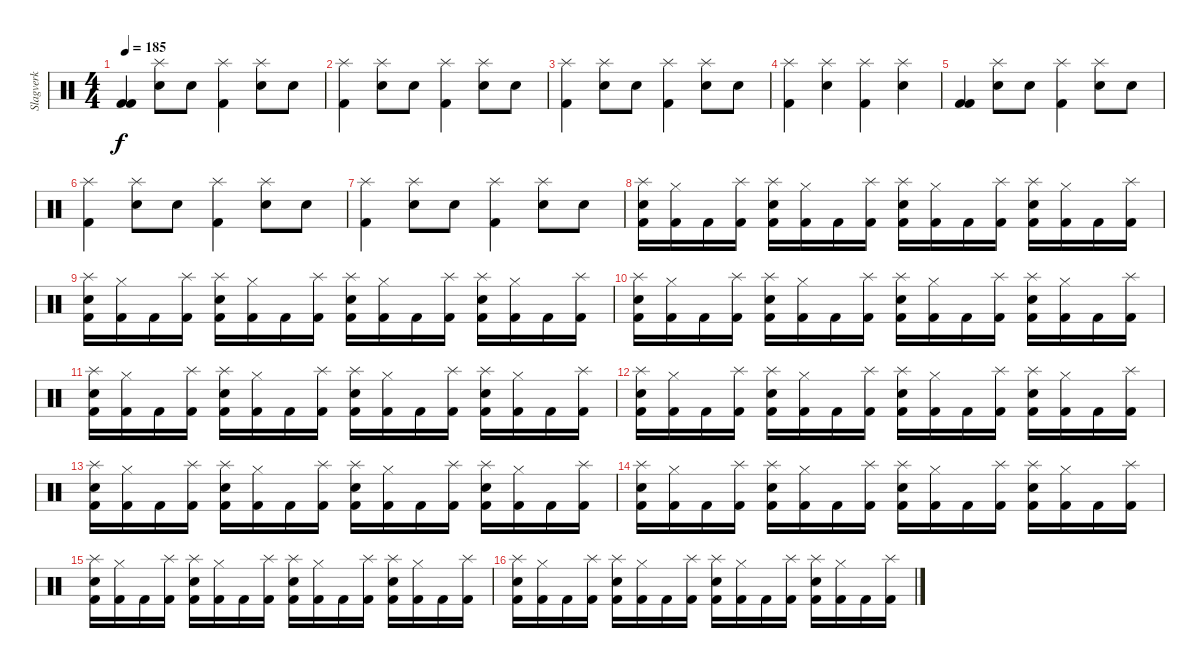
\track ("Slagverk" "Slagverk") {instrument percussion}
\staff {score}
\articulation defaults
\ts (4 4)
\tempo 185
\clef neutral
\ks c
("Kick (hit) 2" "Kick (hit) 2").4{dy f} ("Splash (hit)" "Electric Snare (hit)").8 "Electric Snare (hit)".8 ("Splash (hit)" "Kick (hit) 2").4 ("Splash (hit)" "Electric Snare (hit)").8 "Electric Snare (hit)".8 |
("Splash (hit)" "Kick (hit) 2").4 ("Splash (hit)" "Electric Snare (hit)").8 "Electric Snare (hit)".8 ("Splash (hit)" "Kick (hit) 2").4 ("Splash (hit)" "Electric Snare (hit)").8 "Electric Snare (hit)".8 |
("Splash (hit)" "Kick (hit) 2").4 ("Splash (hit)" "Electric Snare (hit)").8 "Electric Snare (hit)".8 ("Splash (hit)" "Kick (hit) 2").4 ("Splash (hit)" "Electric Snare (hit)").8 "Electric Snare (hit)".8 |
("Splash (hit)" "Kick (hit) 2").4 ("Splash (hit)" "Electric Snare (hit)").4 ("Splash (hit)" "Kick (hit) 2").4 ("Splash (hit)" "Electric Snare (hit)").4 |
("Kick (hit) 2" "Kick (hit) 2").4 ("Splash (hit)" "Electric Snare (hit)").8 "Electric Snare (hit)".8 ("Splash (hit)" "Kick (hit) 2").4 ("Splash (hit)" "Electric Snare (hit)").8 "Electric Snare (hit)".8 |
("Splash (hit)" "Kick (hit) 2").4 ("Splash (hit)" "Electric Snare (hit)").8 "Electric Snare (hit)".8 ("Splash (hit)" "Kick (hit) 2").4 ("Splash (hit)" "Electric Snare (hit)").8 "Electric Snare (hit)".8 |
("Splash (hit)" "Kick (hit) 2").4 ("Splash (hit)" "Electric Snare (hit)").8 "Electric Snare (hit)".8 ("Splash (hit)" "Kick (hit) 2").4 ("Splash (hit)" "Electric Snare (hit)").8 "Electric Snare (hit)".8 |
("Kick (hit) 2" "Electric Snare (hit)" "Splash (hit)").16 ("Kick (hit) 2" "Hi-Hat (closed)").16 "Kick (hit) 2".16 ("Kick (hit) 2" "Splash (hit)").16 ("Kick (hit) 2" "Electric Snare (hit)" "Splash (hit)").16 ("Kick (hit) 2" "Hi-Hat (closed)").16 "Kick (hit) 2".16 ("Kick (hit) 2" "Splash (hit)").16 ("Kick (hit) 2" "Electric Snare (hit)" "Splash (hit)").16 ("Kick (hit) 2" "Hi-Hat (closed)").16 "Kick (hit) 2".16 ("Kick (hit) 2" "Splash (hit)").16 ("Kick (hit) 2" "Electric Snare (hit)" "Splash (hit)").16 ("Kick (hit) 2" "Hi-Hat (closed)").16 "Kick (hit) 2".16 ("Kick (hit) 2" "Splash (hit)").16 |
("Kick (hit) 2" "Electric Snare (hit)" "Splash (hit)").16 ("Kick (hit) 2" "Hi-Hat (closed)").16 "Kick (hit) 2".16 ("Kick (hit) 2" "Splash (hit)").16 ("Kick (hit) 2" "Electric Snare (hit)" "Splash (hit)").16 ("Kick (hit) 2" "Hi-Hat (closed)").16 "Kick (hit) 2".16 ("Kick (hit) 2" "Splash (hit)").16 ("Kick (hit) 2" "Electric Snare (hit)" "Splash (hit)").16 ("Kick (hit) 2" "Hi-Hat (closed)").16 "Kick (hit) 2".16 ("Kick (hit) 2" "Splash (hit)").16 ("Kick (hit) 2" "Electric Snare (hit)" "Splash (hit)").16 ("Kick (hit) 2" "Hi-Hat (closed)").16 "Kick (hit) 2".16 ("Kick (hit) 2" "Splash (hit)").16 |
("Kick (hit) 2" "Electric Snare (hit)" "Splash (hit)").16 ("Kick (hit) 2" "Hi-Hat (closed)").16 "Kick (hit) 2".16 ("Kick (hit) 2" "Splash (hit)").16 ("Kick (hit) 2" "Electric Snare (hit)" "Splash (hit)").16 ("Kick (hit) 2" "Hi-Hat (closed)").16 "Kick (hit) 2".16 ("Kick (hit) 2" "Splash (hit)").16 ("Kick (hit) 2" "Electric Snare (hit)" "Splash (hit)").16 ("Kick (hit) 2" "Hi-Hat (closed)").16 "Kick (hit) 2".16 ("Kick (hit) 2" "Splash (hit)").16 ("Kick (hit) 2" "Electric Snare (hit)" "Splash (hit)").16 ("Kick (hit) 2" "Hi-Hat (closed)").16 "Kick (hit) 2".16 ("Kick (hit) 2" "Splash (hit)").16 |
("Kick (hit) 2" "Electric Snare (hit)" "Splash (hit)").16 ("Kick (hit) 2" "Hi-Hat (closed)").16 "Kick (hit) 2".16 ("Kick (hit) 2" "Splash (hit)").16 ("Kick (hit) 2" "Electric Snare (hit)" "Splash (hit)").16 ("Kick (hit) 2" "Hi-Hat (closed)").16 "Kick (hit) 2".16 ("Kick (hit) 2" "Splash (hit)").16 ("Kick (hit) 2" "Electric Snare (hit)" "Splash (hit)").16 ("Kick (hit) 2" "Hi-Hat (closed)").16 "Kick (hit) 2".16 ("Kick (hit) 2" "Splash (hit)").16 ("Kick (hit) 2" "Electric Snare (hit)" "Splash (hit)").16 ("Kick (hit) 2" "Hi-Hat (closed)").16 "Kick (hit) 2".16 ("Kick (hit) 2" "Splash (hit)").16 |
("Kick (hit) 2" "Electric Snare (hit)" "Splash (hit)").16 ("Kick (hit) 2" "Hi-Hat (closed)").16 "Kick (hit) 2".16 ("Kick (hit) 2" "Splash (hit)").16 ("Kick (hit) 2" "Electric Snare (hit)" "Splash (hit)").16 ("Kick (hit) 2" "Hi-Hat (closed)").16 "Kick (hit) 2".16 ("Kick (hit) 2" "Splash (hit)").16 ("Kick (hit) 2" "Electric Snare (hit)" "Splash (hit)").16 ("Kick (hit) 2" "Hi-Hat (closed)").16 "Kick (hit) 2".16 ("Kick (hit) 2" "Splash (hit)").16 ("Kick (hit) 2" "Electric Snare (hit)" "Splash (hit)").16 ("Kick (hit) 2" "Hi-Hat (closed)").16 "Kick (hit) 2".16 ("Kick (hit) 2" "Splash (hit)").16 |
("Kick (hit) 2" "Electric Snare (hit)" "Splash (hit)").16 ("Kick (hit) 2" "Hi-Hat (closed)").16 "Kick (hit) 2".16 ("Kick (hit) 2" "Splash (hit)").16 ("Kick (hit) 2" "Electric Snare (hit)" "Splash (hit)").16 ("Kick (hit) 2" "Hi-Hat (closed)").16 "Kick (hit) 2".16 ("Kick (hit) 2" "Splash (hit)").16 ("Kick (hit) 2" "Electric Snare (hit)" "Splash (hit)").16 ("Kick (hit) 2" "Hi-Hat (closed)").16 "Kick (hit) 2".16 ("Kick (hit) 2" "Splash (hit)").16 ("Kick (hit) 2" "Electric Snare (hit)" "Splash (hit)").16 ("Kick (hit) 2" "Hi-Hat (closed)").16 "Kick (hit) 2".16 ("Kick (hit) 2" "Splash (hit)").16 |
("Kick (hit) 2" "Electric Snare (hit)" "Splash (hit)").16 ("Kick (hit) 2" "Hi-Hat (closed)").16 "Kick (hit) 2".16 ("Kick (hit) 2" "Splash (hit)").16 ("Kick (hit) 2" "Electric Snare (hit)" "Splash (hit)").16 ("Kick (hit) 2" "Hi-Hat (closed)").16 "Kick (hit) 2".16 ("Kick (hit) 2" "Splash (hit)").16 ("Kick (hit) 2" "Electric Snare (hit)" "Splash (hit)").16 ("Kick (hit) 2" "Hi-Hat (closed)").16 "Kick (hit) 2".16 ("Kick (hit) 2" "Splash (hit)").16 ("Kick (hit) 2" "Electric Snare (hit)" "Splash (hit)").16 ("Kick (hit) 2" "Hi-Hat (closed)").16 "Kick (hit) 2".16 ("Kick (hit) 2" "Splash (hit)").16 |
("Kick (hit) 2" "Electric Snare (hit)" "Splash (hit)").16 ("Kick (hit) 2" "Hi-Hat (closed)").16 "Kick (hit) 2".16 ("Kick (hit) 2" "Splash (hit)").16 ("Kick (hit) 2" "Electric Snare (hit)" "Splash (hit)").16 ("Kick (hit) 2" "Hi-Hat (closed)").16 "Kick (hit) 2".16 ("Kick (hit) 2" "Splash (hit)").16 ("Kick (hit) 2" "Electric Snare (hit)" "Splash (hit)").16 ("Kick (hit) 2" "Hi-Hat (closed)").16 "Kick (hit) 2".16 ("Kick (hit) 2" "Splash (hit)").16 ("Kick (hit) 2" "Electric Snare (hit)" "Splash (hit)").16 ("Kick (hit) 2" "Hi-Hat (closed)").16 "Kick (hit) 2".16 ("Kick (hit) 2" "Splash (hit)").16 |
("Kick (hit) 2" "Electric Snare (hit)" "Splash (hit)").16 ("Kick (hit) 2" "Hi-Hat (closed)").16 "Kick (hit) 2".16 ("Kick (hit) 2" "Splash (hit)").16 ("Kick (hit) 2" "Electric Snare (hit)" "Splash (hit)").16 ("Kick (hit) 2" "Hi-Hat (closed)").16 "Kick (hit) 2".16 ("Kick (hit) 2" "Splash (hit)").16 ("Kick (hit) 2" "Electric Snare (hit)" "Splash (hit)").16 ("Kick (hit) 2" "Hi-Hat (closed)").16 "Kick (hit) 2".16 ("Kick (hit) 2" "Splash (hit)").16 ("Kick (hit) 2" "Electric Snare (hit)" "Splash (hit)").16 ("Kick (hit) 2" "Hi-Hat (closed)").16 "Kick (hit) 2".16 ("Kick (hit) 2" "Splash (hit)").16
